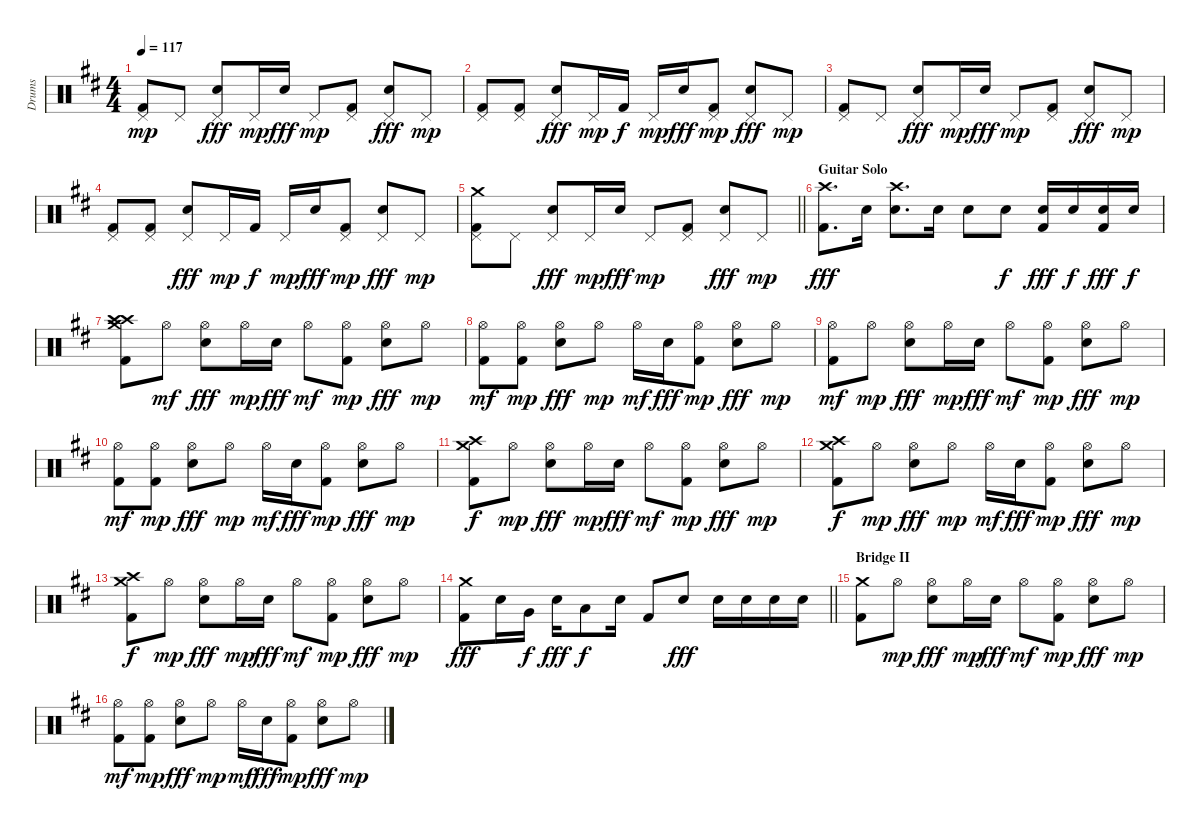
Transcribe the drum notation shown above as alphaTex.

\track ("Drums" "Drums") {instrument percussion}
\staff {score}
\articulation defaults
\ts (4 4)
\tempo 117
\clef neutral
\ks d
("Pedal Hi-Hat (hit)" "Kick (hit) 2").8{dy mp} "Pedal Hi-Hat (hit)".8 ("Pedal Hi-Hat (hit)" "Electric Snare (hit)").8{dy fff} "Pedal Hi-Hat (hit)".16{dy mp} "Electric Snare (hit)".16{dy fff} "Pedal Hi-Hat (hit)".8{dy mp} ("Pedal Hi-Hat (hit)" "Kick (hit) 2").8 ("Pedal Hi-Hat (hit)" "Electric Snare (hit)").8{dy fff} "Pedal Hi-Hat (hit)".8{dy mp} |
("Pedal Hi-Hat (hit)" "Kick (hit) 2").8 ("Pedal Hi-Hat (hit)" "Kick (hit) 2").8 ("Pedal Hi-Hat (hit)" "Electric Snare (hit)").8{dy fff} "Pedal Hi-Hat (hit)".16{dy mp} "Kick (hit) 2".16{dy f} "Pedal Hi-Hat (hit)".16{dy mp} "Electric Snare (hit)".16{dy fff} ("Pedal Hi-Hat (hit)" "Kick (hit) 2").8{dy mp} ("Pedal Hi-Hat (hit)" "Electric Snare (hit)").8{dy fff} "Pedal Hi-Hat (hit)".8{dy mp} |
("Pedal Hi-Hat (hit)" "Kick (hit) 2").8 "Pedal Hi-Hat (hit)".8 ("Pedal Hi-Hat (hit)" "Electric Snare (hit)").8{dy fff} "Pedal Hi-Hat (hit)".16{dy mp} "Electric Snare (hit)".16{dy fff} "Pedal Hi-Hat (hit)".8{dy mp} ("Pedal Hi-Hat (hit)" "Kick (hit) 2").8 ("Pedal Hi-Hat (hit)" "Electric Snare (hit)").8{dy fff} "Pedal Hi-Hat (hit)".8{dy mp} |
("Pedal Hi-Hat (hit)" "Kick (hit) 2").8 ("Pedal Hi-Hat (hit)" "Kick (hit) 2").8 ("Pedal Hi-Hat (hit)" "Electric Snare (hit)").8{dy fff} "Pedal Hi-Hat (hit)".16{dy mp} "Kick (hit) 2".16{dy f} "Pedal Hi-Hat (hit)".16{dy mp} "Electric Snare (hit)".16{dy fff} ("Pedal Hi-Hat (hit)" "Kick (hit) 2").8{dy mp} ("Pedal Hi-Hat (hit)" "Electric Snare (hit)").8{dy fff} "Pedal Hi-Hat (hit)".8{dy mp} |
\barLineRight lightlight
("Pedal Hi-Hat (hit)" "Crash medium (hit)" "Kick (hit) 2").8 "Pedal Hi-Hat (hit)".8 ("Pedal Hi-Hat (hit)" "Electric Snare (hit)").8{dy fff} "Pedal Hi-Hat (hit)".16{dy mp} "Electric Snare (hit)".16{dy fff} "Pedal Hi-Hat (hit)".8{dy mp} ("Pedal Hi-Hat (hit)" "Kick (hit) 2").8 ("Pedal Hi-Hat (hit)" "Electric Snare (hit)").8{dy fff} "Pedal Hi-Hat (hit)".8{dy mp} |
\section ("" "Guitar Solo")
("Crash high (hit)" "Kick (hit) 2").8{d dy fff} "Electric Snare (hit)".16 ("Crash high (hit)" "Electric Snare (hit)").8{d} "Electric Snare (hit)".16 "Electric Snare (hit)".8 "Electric Snare (hit)".8{dy f} ("Kick (hit) 2" "Electric Snare (hit)").16{dy fff} "Electric Snare (hit)".16{dy f} ("Kick (hit) 2" "Electric Snare (hit)").16{dy fff} "Electric Snare (hit)".16{dy f} |
("Crash medium (hit)" "Crash high (hit)" "Crash high (hit)" "Kick (hit) 2").8 "Hi-Hat (open)".8{dy mf} ("Hi-Hat (open)" "Electric Snare (hit)").8{dy fff} "Hi-Hat (open)".16{dy mp} "Electric Snare (hit)".16{dy fff} "Hi-Hat (open)".8{dy mf} ("Hi-Hat (open)" "Kick (hit) 2").8{dy mp} ("Hi-Hat (open)" "Electric Snare (hit)").8{dy fff} "Hi-Hat (open)".8{dy mp} |
("Hi-Hat (open)" "Kick (hit) 2").8{dy mf} ("Hi-Hat (open)" "Kick (hit) 2").8{dy mp} ("Hi-Hat (open)" "Electric Snare (hit)").8{dy fff} "Hi-Hat (open)".8{dy mp} "Hi-Hat (open)".16{dy mf} "Electric Snare (hit)".16{dy fff} ("Hi-Hat (open)" "Kick (hit) 2").8{dy mp} ("Hi-Hat (open)" "Electric Snare (hit)").8{dy fff} "Hi-Hat (open)".8{dy mp} |
("Hi-Hat (open)" "Kick (hit) 2").8{dy mf} "Hi-Hat (open)".8{dy mp} ("Hi-Hat (open)" "Electric Snare (hit)").8{dy fff} "Hi-Hat (open)".16{dy mp} "Electric Snare (hit)".16{dy fff} "Hi-Hat (open)".8{dy mf} ("Hi-Hat (open)" "Kick (hit) 2").8{dy mp} ("Hi-Hat (open)" "Electric Snare (hit)").8{dy fff} "Hi-Hat (open)".8{dy mp} |
("Hi-Hat (open)" "Kick (hit) 2").8{dy mf} ("Hi-Hat (open)" "Kick (hit) 2").8{dy mp} ("Hi-Hat (open)" "Electric Snare (hit)").8{dy fff} "Hi-Hat (open)".8{dy mp} "Hi-Hat (open)".16{dy mf} "Electric Snare (hit)".16{dy fff} ("Hi-Hat (open)" "Kick (hit) 2").8{dy mp} ("Hi-Hat (open)" "Electric Snare (hit)").8{dy fff} "Hi-Hat (open)".8{dy mp} |
("Crash medium (hit)" "Crash high (hit)" "Kick (hit) 2").8{dy f} "Hi-Hat (open)".8{dy mp} ("Hi-Hat (open)" "Electric Snare (hit)").8{dy fff} "Hi-Hat (open)".16{dy mp} "Electric Snare (hit)".16{dy fff} "Hi-Hat (open)".8{dy mf} ("Hi-Hat (open)" "Kick (hit) 2").8{dy mp} ("Hi-Hat (open)" "Electric Snare (hit)").8{dy fff} "Hi-Hat (open)".8{dy mp} |
("Kick (hit) 2" "Crash high (hit)" "Crash medium (hit)").8{dy f} "Hi-Hat (open)".8{dy mp} ("Hi-Hat (open)" "Electric Snare (hit)").8{dy fff} "Hi-Hat (open)".8{dy mp} "Hi-Hat (open)".16{dy mf} "Electric Snare (hit)".16{dy fff} ("Hi-Hat (open)" "Kick (hit) 2").8{dy mp} ("Hi-Hat (open)" "Electric Snare (hit)").8{dy fff} "Hi-Hat (open)".8{dy mp} |
("Crash medium (hit)" "Crash high (hit)" "Kick (hit) 2").8{dy f} "Hi-Hat (open)".8{dy mp} ("Hi-Hat (open)" "Electric Snare (hit)").8{dy fff} "Hi-Hat (open)".16{dy mp} "Electric Snare (hit)".16{dy fff} "Hi-Hat (open)".8{dy mf} ("Hi-Hat (open)" "Kick (hit) 2").8{dy mp} ("Hi-Hat (open)" "Electric Snare (hit)").8{dy fff} "Hi-Hat (open)".8{dy mp} |
\barLineRight lightlight
("Crash medium (hit)" "Kick (hit) 2").8{dy fff} "Snare (hit) 2".16 "Very Low Tom (hit)".16{dy f} "Snare (hit) 2".16{dy fff} "Low Floor Tom (hit)".8{dy f} "Electric Snare (hit)".16 "Kick (hit) 2".8 "Snare (hit) 2".8{dy fff} "Snare (hit) 2".16 "Snare (hit) 2".16 "Snare (hit) 2".16 "Snare (hit) 2".16 |
\section ("" "Bridge II")
("Crash medium (hit)" "Kick (hit) 2").8 "Hi-Hat (open)".8{dy mp} ("Hi-Hat (open)" "Electric Snare (hit)").8{dy fff} "Hi-Hat (open)".16{dy mp} "Electric Snare (hit)".16{dy fff} "Hi-Hat (open)".8{dy mf} ("Hi-Hat (open)" "Kick (hit) 2").8{dy mp} ("Hi-Hat (open)" "Electric Snare (hit)").8{dy fff} "Hi-Hat (open)".8{dy mp} |
("Hi-Hat (open)" "Kick (hit) 2").8{dy mf} ("Hi-Hat (open)" "Kick (hit) 2").8{dy mp} ("Hi-Hat (open)" "Electric Snare (hit)").8{dy fff} "Hi-Hat (open)".8{dy mp} "Hi-Hat (open)".16{dy mf} "Electric Snare (hit)".16{dy fff} ("Hi-Hat (open)" "Kick (hit) 2").8{dy mp} ("Hi-Hat (open)" "Electric Snare (hit)").8{dy fff} "Hi-Hat (open)".8{dy mp}
